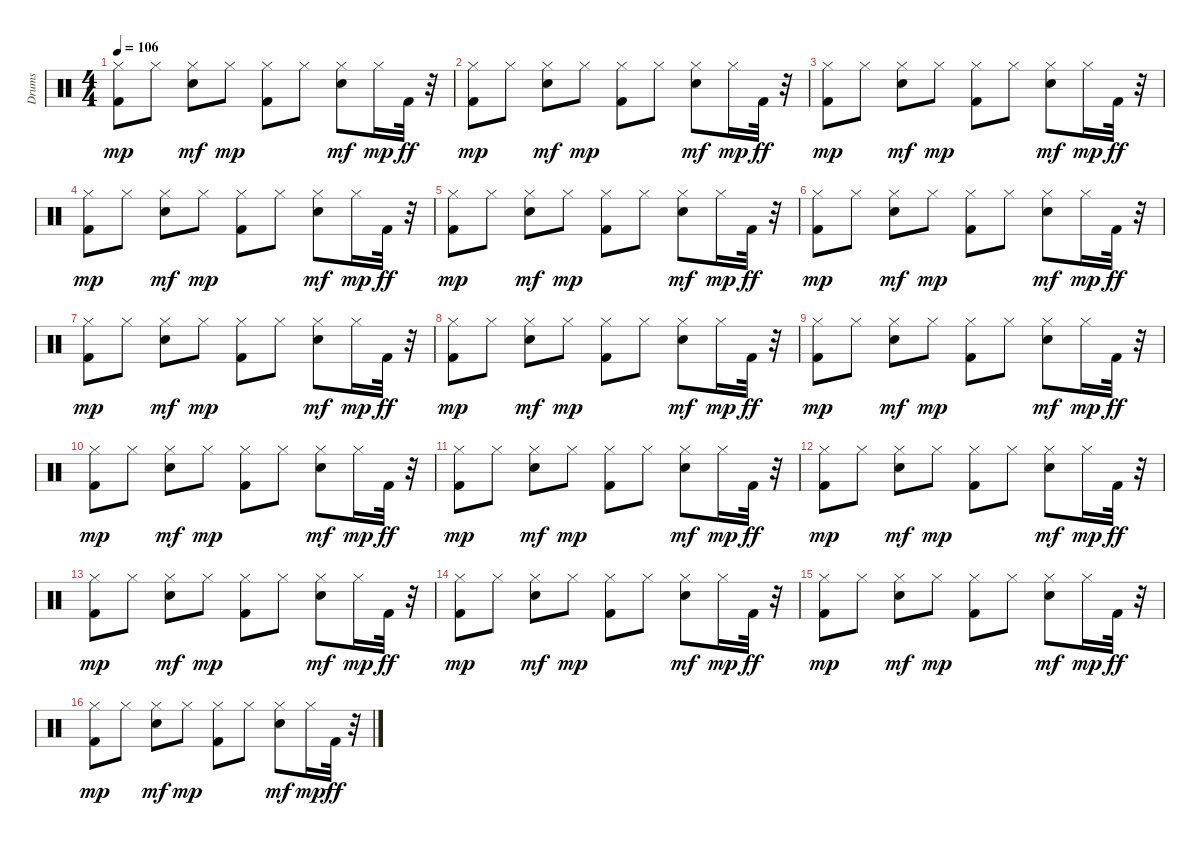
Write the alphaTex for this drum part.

\track ("Drums" "Drums") {instrument percussion}
\staff {score}
\articulation defaults
\ts (4 4)
\tempo 106
\clef neutral
\ks c
("Kick (hit) 2" "Hi-Hat (closed)").8{dy mp} "Hi-Hat (closed)".8 ("Hi-Hat (closed)" "Snare (hit) 2").8{dy mf} "Hi-Hat (closed)".8{dy mp} ("Hi-Hat (closed)" "Kick (hit) 2").8 "Hi-Hat (closed)".8 ("Hi-Hat (closed)" "Snare (hit) 2").8{dy mf} "Hi-Hat (closed)".16{dy mp} "Kick (hit) 2".32{dy ff} r.32 |
("Kick (hit) 2" "Hi-Hat (closed)").8{dy mp} "Hi-Hat (closed)".8 ("Hi-Hat (closed)" "Snare (hit) 2").8{dy mf} "Hi-Hat (closed)".8{dy mp} ("Hi-Hat (closed)" "Kick (hit) 2").8 "Hi-Hat (closed)".8 ("Hi-Hat (closed)" "Snare (hit) 2").8{dy mf} "Hi-Hat (closed)".16{dy mp} "Kick (hit) 2".32{dy ff} r.32 |
("Kick (hit) 2" "Hi-Hat (closed)").8{dy mp} "Hi-Hat (closed)".8 ("Hi-Hat (closed)" "Snare (hit) 2").8{dy mf} "Hi-Hat (closed)".8{dy mp} ("Hi-Hat (closed)" "Kick (hit) 2").8 "Hi-Hat (closed)".8 ("Hi-Hat (closed)" "Snare (hit) 2").8{dy mf} "Hi-Hat (closed)".16{dy mp} "Kick (hit) 2".32{dy ff} r.32 |
("Kick (hit) 2" "Hi-Hat (closed)").8{dy mp} "Hi-Hat (closed)".8 ("Hi-Hat (closed)" "Snare (hit) 2").8{dy mf} "Hi-Hat (closed)".8{dy mp} ("Hi-Hat (closed)" "Kick (hit) 2").8 "Hi-Hat (closed)".8 ("Hi-Hat (closed)" "Snare (hit) 2").8{dy mf} "Hi-Hat (closed)".16{dy mp} "Kick (hit) 2".32{dy ff} r.32 |
("Kick (hit) 2" "Hi-Hat (closed)").8{dy mp} "Hi-Hat (closed)".8 ("Hi-Hat (closed)" "Snare (hit) 2").8{dy mf} "Hi-Hat (closed)".8{dy mp} ("Hi-Hat (closed)" "Kick (hit) 2").8 "Hi-Hat (closed)".8 ("Hi-Hat (closed)" "Snare (hit) 2").8{dy mf} "Hi-Hat (closed)".16{dy mp} "Kick (hit) 2".32{dy ff} r.32 |
("Kick (hit) 2" "Hi-Hat (closed)").8{dy mp} "Hi-Hat (closed)".8 ("Hi-Hat (closed)" "Snare (hit) 2").8{dy mf} "Hi-Hat (closed)".8{dy mp} ("Hi-Hat (closed)" "Kick (hit) 2").8 "Hi-Hat (closed)".8 ("Hi-Hat (closed)" "Snare (hit) 2").8{dy mf} "Hi-Hat (closed)".16{dy mp} "Kick (hit) 2".32{dy ff} r.32 |
("Kick (hit) 2" "Hi-Hat (closed)").8{dy mp} "Hi-Hat (closed)".8 ("Hi-Hat (closed)" "Snare (hit) 2").8{dy mf} "Hi-Hat (closed)".8{dy mp} ("Hi-Hat (closed)" "Kick (hit) 2").8 "Hi-Hat (closed)".8 ("Hi-Hat (closed)" "Snare (hit) 2").8{dy mf} "Hi-Hat (closed)".16{dy mp} "Kick (hit) 2".32{dy ff} r.32 |
("Kick (hit) 2" "Hi-Hat (closed)").8{dy mp} "Hi-Hat (closed)".8 ("Hi-Hat (closed)" "Snare (hit) 2").8{dy mf} "Hi-Hat (closed)".8{dy mp} ("Hi-Hat (closed)" "Kick (hit) 2").8 "Hi-Hat (closed)".8 ("Hi-Hat (closed)" "Snare (hit) 2").8{dy mf} "Hi-Hat (closed)".16{dy mp} "Kick (hit) 2".32{dy ff} r.32 |
("Kick (hit) 2" "Hi-Hat (closed)").8{dy mp} "Hi-Hat (closed)".8 ("Hi-Hat (closed)" "Snare (hit) 2").8{dy mf} "Hi-Hat (closed)".8{dy mp} ("Hi-Hat (closed)" "Kick (hit) 2").8 "Hi-Hat (closed)".8 ("Hi-Hat (closed)" "Snare (hit) 2").8{dy mf} "Hi-Hat (closed)".16{dy mp} "Kick (hit) 2".32{dy ff} r.32 |
("Kick (hit) 2" "Hi-Hat (closed)").8{dy mp} "Hi-Hat (closed)".8 ("Hi-Hat (closed)" "Snare (hit) 2").8{dy mf} "Hi-Hat (closed)".8{dy mp} ("Hi-Hat (closed)" "Kick (hit) 2").8 "Hi-Hat (closed)".8 ("Hi-Hat (closed)" "Snare (hit) 2").8{dy mf} "Hi-Hat (closed)".16{dy mp} "Kick (hit) 2".32{dy ff} r.32 |
("Kick (hit) 2" "Hi-Hat (closed)").8{dy mp} "Hi-Hat (closed)".8 ("Hi-Hat (closed)" "Snare (hit) 2").8{dy mf} "Hi-Hat (closed)".8{dy mp} ("Hi-Hat (closed)" "Kick (hit) 2").8 "Hi-Hat (closed)".8 ("Hi-Hat (closed)" "Snare (hit) 2").8{dy mf} "Hi-Hat (closed)".16{dy mp} "Kick (hit) 2".32{dy ff} r.32 |
("Kick (hit) 2" "Hi-Hat (closed)").8{dy mp} "Hi-Hat (closed)".8 ("Hi-Hat (closed)" "Snare (hit) 2").8{dy mf} "Hi-Hat (closed)".8{dy mp} ("Hi-Hat (closed)" "Kick (hit) 2").8 "Hi-Hat (closed)".8 ("Hi-Hat (closed)" "Snare (hit) 2").8{dy mf} "Hi-Hat (closed)".16{dy mp} "Kick (hit) 2".32{dy ff} r.32 |
("Kick (hit) 2" "Hi-Hat (closed)").8{dy mp} "Hi-Hat (closed)".8 ("Hi-Hat (closed)" "Snare (hit) 2").8{dy mf} "Hi-Hat (closed)".8{dy mp} ("Hi-Hat (closed)" "Kick (hit) 2").8 "Hi-Hat (closed)".8 ("Hi-Hat (closed)" "Snare (hit) 2").8{dy mf} "Hi-Hat (closed)".16{dy mp} "Kick (hit) 2".32{dy ff} r.32 |
("Kick (hit) 2" "Hi-Hat (closed)").8{dy mp} "Hi-Hat (closed)".8 ("Hi-Hat (closed)" "Snare (hit) 2").8{dy mf} "Hi-Hat (closed)".8{dy mp} ("Hi-Hat (closed)" "Kick (hit) 2").8 "Hi-Hat (closed)".8 ("Hi-Hat (closed)" "Snare (hit) 2").8{dy mf} "Hi-Hat (closed)".16{dy mp} "Kick (hit) 2".32{dy ff} r.32 |
("Kick (hit) 2" "Hi-Hat (closed)").8{dy mp} "Hi-Hat (closed)".8 ("Hi-Hat (closed)" "Snare (hit) 2").8{dy mf} "Hi-Hat (closed)".8{dy mp} ("Hi-Hat (closed)" "Kick (hit) 2").8 "Hi-Hat (closed)".8 ("Hi-Hat (closed)" "Snare (hit) 2").8{dy mf} "Hi-Hat (closed)".16{dy mp} "Kick (hit) 2".32{dy ff} r.32 |
("Kick (hit) 2" "Hi-Hat (closed)").8{dy mp} "Hi-Hat (closed)".8 ("Hi-Hat (closed)" "Snare (hit) 2").8{dy mf} "Hi-Hat (closed)".8{dy mp} ("Hi-Hat (closed)" "Kick (hit) 2").8 "Hi-Hat (closed)".8 ("Hi-Hat (closed)" "Snare (hit) 2").8{dy mf} "Hi-Hat (closed)".16{dy mp} "Kick (hit) 2".32{dy ff} r.32
